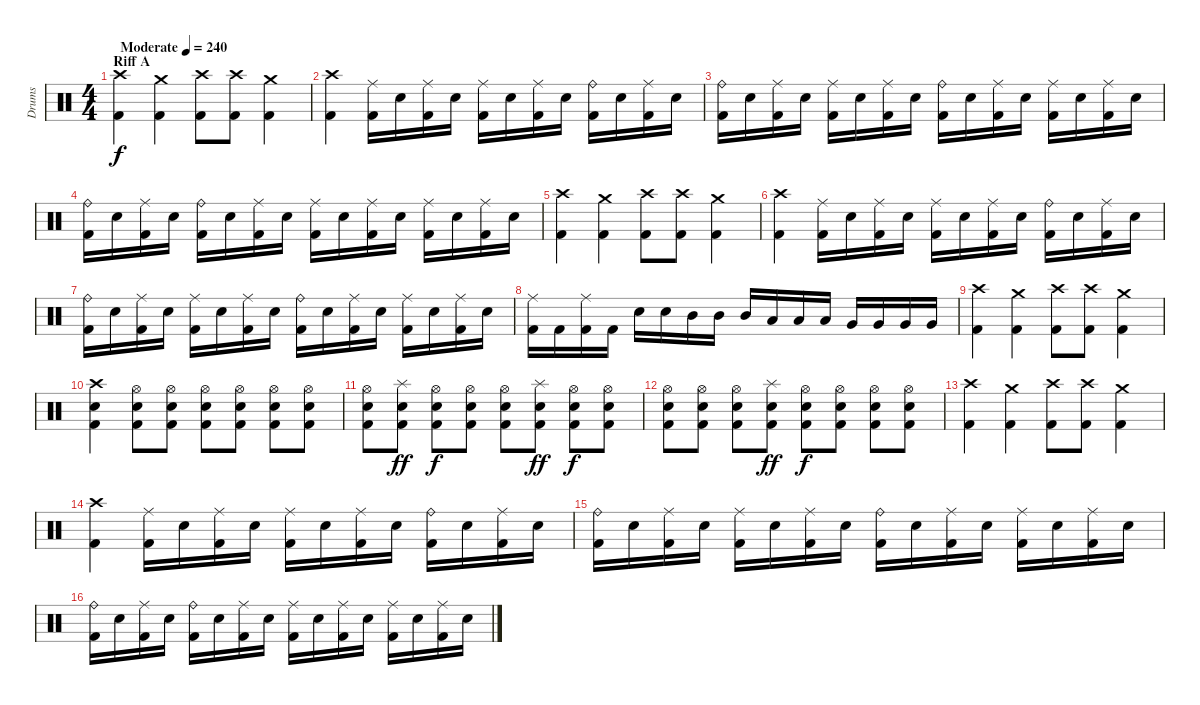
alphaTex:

\track ("Drums" "Drums") {instrument percussion}
\staff {score}
\articulation defaults
\ts (4 4)
\section ("" "Riff A")
\tempo (240 "Moderate")
\clef neutral
\ks c
("Crash high (hit)" "Kick (hit) 2").4{dy f} ("Crash medium (hit)" "Kick (hit) 2").4 ("Crash high (hit)" "Kick (hit) 2").8 ("Crash high (hit)" "Kick (hit) 2").8 ("Crash medium (hit)" "Kick (hit) 2").4 |
("Crash high (hit)" "Kick (hit) 2").4 ("Ride (middle)" "Kick (hit) 2").16 "Electric Snare (hit)".16 ("Ride (middle)" "Kick (hit) 2").16 "Electric Snare (hit)".16 ("Ride (middle)" "Kick (hit) 2").16 "Electric Snare (hit)".16 ("Ride (middle)" "Kick (hit) 2").16 "Electric Snare (hit)".16 ("Ride (bell)" "Kick (hit) 2").16 "Electric Snare (hit)".16 ("Ride (middle)" "Kick (hit) 2").16 "Electric Snare (hit)".16 |
("Ride (bell)" "Kick (hit) 2").16 "Electric Snare (hit)".16 ("Ride (middle)" "Kick (hit) 2").16 "Electric Snare (hit)".16 ("Ride (middle)" "Kick (hit) 2").16 "Electric Snare (hit)".16 ("Ride (middle)" "Kick (hit) 2").16 "Electric Snare (hit)".16 ("Ride (bell)" "Kick (hit) 2").16 "Electric Snare (hit)".16 ("Ride (middle)" "Kick (hit) 2").16 "Electric Snare (hit)".16 ("Ride (middle)" "Kick (hit) 2").16 "Electric Snare (hit)".16 ("Ride (middle)" "Kick (hit) 2").16 "Electric Snare (hit)".16 |
("Ride (bell)" "Kick (hit) 2").16 "Electric Snare (hit)".16 ("Ride (middle)" "Kick (hit) 2").16 "Electric Snare (hit)".16 ("Ride (bell)" "Kick (hit) 2").16 "Electric Snare (hit)".16 ("Ride (middle)" "Kick (hit) 2").16 "Electric Snare (hit)".16 ("Ride (middle)" "Kick (hit) 2").16 "Electric Snare (hit)".16 ("Ride (middle)" "Kick (hit) 2").16 "Electric Snare (hit)".16 ("Ride (middle)" "Kick (hit) 2").16 "Electric Snare (hit)".16 ("Ride (middle)" "Kick (hit) 2").16 "Electric Snare (hit)".16 |
("Crash high (hit)" "Kick (hit) 2").4 ("Crash medium (hit)" "Kick (hit) 2").4 ("Crash high (hit)" "Kick (hit) 2").8 ("Crash high (hit)" "Kick (hit) 2").8 ("Crash medium (hit)" "Kick (hit) 2").4 |
("Crash high (hit)" "Kick (hit) 2").4 ("Ride (middle)" "Kick (hit) 2").16 "Electric Snare (hit)".16 ("Ride (middle)" "Kick (hit) 2").16 "Electric Snare (hit)".16 ("Ride (middle)" "Kick (hit) 2").16 "Electric Snare (hit)".16 ("Ride (middle)" "Kick (hit) 2").16 "Electric Snare (hit)".16 ("Ride (bell)" "Kick (hit) 2").16 "Electric Snare (hit)".16 ("Ride (middle)" "Kick (hit) 2").16 "Electric Snare (hit)".16 |
("Ride (bell)" "Kick (hit) 2").16 "Electric Snare (hit)".16 ("Ride (middle)" "Kick (hit) 2").16 "Electric Snare (hit)".16 ("Ride (middle)" "Kick (hit) 2").16 "Electric Snare (hit)".16 ("Ride (middle)" "Kick (hit) 2").16 "Electric Snare (hit)".16 ("Ride (bell)" "Kick (hit) 2").16 "Electric Snare (hit)".16 ("Ride (middle)" "Kick (hit) 2").16 "Electric Snare (hit)".16 ("Ride (middle)" "Kick (hit) 2").16 "Electric Snare (hit)".16 ("Ride (middle)" "Kick (hit) 2").16 "Electric Snare (hit)".16 |
("Ride (middle)" "Kick (hit) 2").16 "Kick (hit) 2".16 ("Ride (middle)" "Kick (hit) 2").16 "Kick (hit) 2".16 "Electric Snare (hit)".16 "Electric Snare (hit)".16 "Mid Tom (hit)".16 "Mid Tom (hit)".16 "Mid Tom (hit)".16 "Low Tom (hit)".16 "Low Tom (hit)".16 "Low Tom (hit)".16 "Very Low Tom (hit)".16 "Very Low Tom (hit)".16 "Very Low Tom (hit)".16 "Very Low Tom (hit)".16 |
("Crash high (hit)" "Kick (hit) 2").4 ("Crash medium (hit)" "Kick (hit) 2").4 ("Crash high (hit)" "Kick (hit) 2").8 ("Crash high (hit)" "Kick (hit) 2").8 ("Crash medium (hit)" "Kick (hit) 2").4 |
("Crash high (hit)" "Electric Snare (hit)" "Kick (hit) 2").4 ("Hi-Hat (open)" "Electric Snare (hit)" "Kick (hit) 2").8 ("Hi-Hat (open)" "Electric Snare (hit)" "Kick (hit) 2").8 ("Hi-Hat (open)" "Electric Snare (hit)" "Kick (hit) 2").8 ("Hi-Hat (open)" "Electric Snare (hit)" "Kick (hit) 2").8 ("Hi-Hat (open)" "Electric Snare (hit)" "Kick (hit) 2").8 ("Hi-Hat (open)" "Electric Snare (hit)" "Kick (hit) 2").8 |
("Hi-Hat (open)" "Electric Snare (hit)" "Kick (hit) 2").8 ("Splash (hit)" "Electric Snare (hit)" "Kick (hit) 2").8{dy ff} ("Hi-Hat (open)" "Electric Snare (hit)" "Kick (hit) 2").8{dy f} ("Hi-Hat (open)" "Electric Snare (hit)" "Kick (hit) 2").8 ("Hi-Hat (open)" "Electric Snare (hit)" "Kick (hit) 2").8 ("Splash (hit)" "Electric Snare (hit)" "Kick (hit) 2").8{dy ff} ("Hi-Hat (open)" "Electric Snare (hit)" "Kick (hit) 2").8{dy f} ("Hi-Hat (open)" "Electric Snare (hit)" "Kick (hit) 2").8 |
("Hi-Hat (open)" "Electric Snare (hit)" "Kick (hit) 2").8 ("Hi-Hat (open)" "Electric Snare (hit)" "Kick (hit) 2").8 ("Hi-Hat (open)" "Electric Snare (hit)" "Kick (hit) 2").8 ("Splash (hit)" "Electric Snare (hit)" "Kick (hit) 2").8{dy ff} ("Hi-Hat (open)" "Electric Snare (hit)" "Kick (hit) 2").8{dy f} ("Hi-Hat (open)" "Electric Snare (hit)" "Kick (hit) 2").8 ("Hi-Hat (open)" "Electric Snare (hit)" "Kick (hit) 2").8 ("Hi-Hat (open)" "Electric Snare (hit)" "Kick (hit) 2").8 |
("Crash high (hit)" "Kick (hit) 2").4 ("Crash medium (hit)" "Kick (hit) 2").4 ("Crash high (hit)" "Kick (hit) 2").8 ("Crash high (hit)" "Kick (hit) 2").8 ("Crash medium (hit)" "Kick (hit) 2").4 |
("Crash high (hit)" "Kick (hit) 2").4 ("Ride (middle)" "Kick (hit) 2").16 "Electric Snare (hit)".16 ("Ride (middle)" "Kick (hit) 2").16 "Electric Snare (hit)".16 ("Ride (middle)" "Kick (hit) 2").16 "Electric Snare (hit)".16 ("Ride (middle)" "Kick (hit) 2").16 "Electric Snare (hit)".16 ("Ride (bell)" "Kick (hit) 2").16 "Electric Snare (hit)".16 ("Ride (middle)" "Kick (hit) 2").16 "Electric Snare (hit)".16 |
("Ride (bell)" "Kick (hit) 2").16 "Electric Snare (hit)".16 ("Ride (middle)" "Kick (hit) 2").16 "Electric Snare (hit)".16 ("Ride (middle)" "Kick (hit) 2").16 "Electric Snare (hit)".16 ("Ride (middle)" "Kick (hit) 2").16 "Electric Snare (hit)".16 ("Ride (bell)" "Kick (hit) 2").16 "Electric Snare (hit)".16 ("Ride (middle)" "Kick (hit) 2").16 "Electric Snare (hit)".16 ("Ride (middle)" "Kick (hit) 2").16 "Electric Snare (hit)".16 ("Ride (middle)" "Kick (hit) 2").16 "Electric Snare (hit)".16 |
("Ride (bell)" "Kick (hit) 2").16 "Electric Snare (hit)".16 ("Ride (middle)" "Kick (hit) 2").16 "Electric Snare (hit)".16 ("Ride (bell)" "Kick (hit) 2").16 "Electric Snare (hit)".16 ("Ride (middle)" "Kick (hit) 2").16 "Electric Snare (hit)".16 ("Ride (middle)" "Kick (hit) 2").16 "Electric Snare (hit)".16 ("Ride (middle)" "Kick (hit) 2").16 "Electric Snare (hit)".16 ("Ride (middle)" "Kick (hit) 2").16 "Electric Snare (hit)".16 ("Ride (middle)" "Kick (hit) 2").16 "Electric Snare (hit)".16
